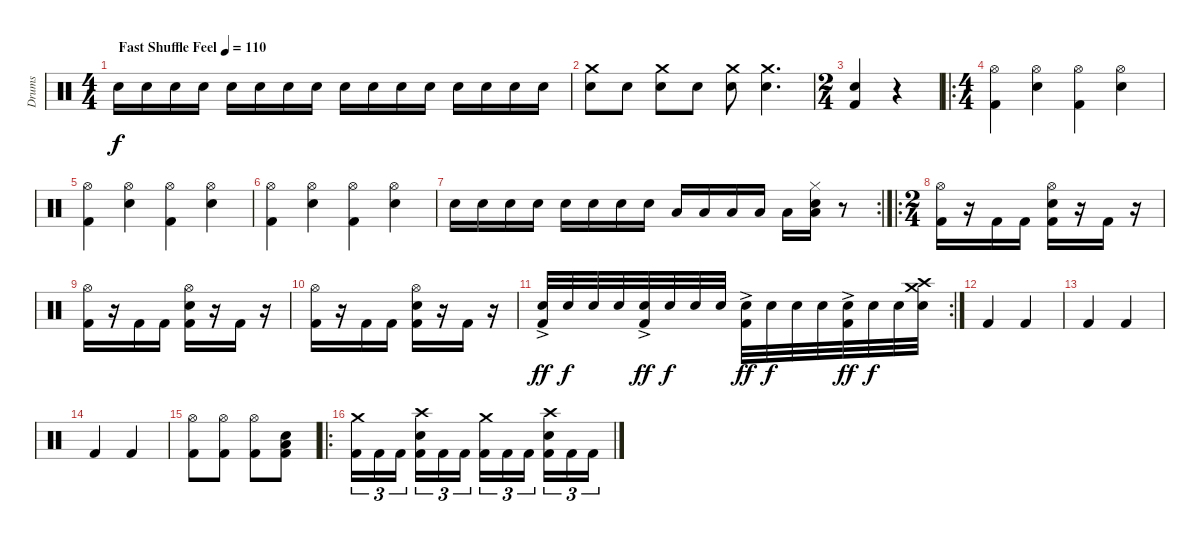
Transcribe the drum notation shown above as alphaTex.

\track ("Drums" "Drums") {instrument percussion}
\staff {score}
\articulation defaults
\ts (4 4)
\tempo (110 "Fast Shuffle Feel")
\clef neutral
\ks c "Snare (hit) 2".16{dy f} "Snare (hit) 2".16 "Snare (hit) 2".16 "Snare (hit) 2".16 "Snare (hit) 2".16 "Snare (hit) 2".16 "Snare (hit) 2".16 "Snare (hit) 2".16 "Snare (hit) 2".16 "Snare (hit) 2".16 "Snare (hit) 2".16 "Snare (hit) 2".16 "Snare (hit) 2".16 "Snare (hit) 2".16 "Snare (hit) 2".16 "Snare (hit) 2".16
|
("Snare (hit) 2" "Crash medium (hit)").8 "Snare (hit) 2".8 ("Snare (hit) 2" "Crash medium (hit)").8 "Snare (hit) 2".8 ("Snare (hit) 2" "Crash medium (hit)").8 ("Snare (hit) 2" "Crash medium (hit)").4{d} |
\ts (2 4)
("Kick (hit) 2" "Snare (hit) 2").4 r.4 |
\ro
\ts (4 4)
("Hi-Hat (open)" "Kick (hit) 2").4 ("Hi-Hat (open)" "Snare (hit) 2").4 ("Hi-Hat (open)" "Kick (hit) 2").4 ("Hi-Hat (open)" "Snare (hit) 2").4 |
("Hi-Hat (open)" "Kick (hit) 2").4 ("Hi-Hat (open)" "Snare (hit) 2").4 ("Hi-Hat (open)" "Kick (hit) 2").4 ("Hi-Hat (open)" "Snare (hit) 2").4 |
("Hi-Hat (open)" "Kick (hit) 2").4 ("Hi-Hat (open)" "Snare (hit) 2").4 ("Hi-Hat (open)" "Kick (hit) 2").4 ("Hi-Hat (open)" "Snare (hit) 2").4 |
\rc 2 "Snare (hit) 2".16 "Snare (hit) 2".16 "Snare (hit) 2".16 "Snare (hit) 2".16 "Snare (hit) 2".16 "Snare (hit) 2".16 "Snare (hit) 2".16 "Snare (hit) 2".16 "Low Tom (hit)".16 "Low Tom (hit)".16 "Low Tom (hit)".16 "Low Floor Tom (hit)".16 "Low Floor Tom (hit)".16
("Low Floor Tom (hit)" "Snare (hit) 2" "Hi-Hat (closed)").16 r.8 |
\ro
\ts (2 4)
("Kick (hit) 2" "Hi-Hat (open)").16 r.16 "Kick (hit) 2".16 "Kick (hit) 2".16 ("Kick (hit) 2" "Snare (hit) 2" "Hi-Hat (open)").16 r.16 "Kick (hit) 2".16 r.16 |
("Kick (hit) 2" "Hi-Hat (open)").16 r.16 "Kick (hit) 2".16 "Kick (hit) 2".16 ("Kick (hit) 2" "Snare (hit) 2" "Hi-Hat (open)").16 r.16 "Kick (hit) 2".16 r.16 |
("Kick (hit) 2" "Hi-Hat (open)").16 r.16 "Kick (hit) 2".16 "Kick (hit) 2".16 ("Kick (hit) 2" "Snare (hit) 2" "Hi-Hat (open)").16 r.16 "Kick (hit) 2".16 r.16 |
\rc 2
("Snare (hit) 2" "Kick (hit) 2"{ac}).32{dy ff} "Snare (hit) 2".32{dy f} "Snare (hit) 2".32 "Snare (hit) 2".32 ("Snare (hit) 2" "Kick (hit) 2"{ac}).32{dy ff} "Snare (hit) 2".32{dy f} "Snare (hit) 2".32 "Snare (hit) 2".32 ("Snare (hit) 2" "Kick (hit) 2"{ac}).32{dy ff} "Snare (hit) 2".32{dy f} "Snare (hit) 2".32 "Snare (hit) 2".32 ("Snare (hit) 2" "Kick (hit) 2"{ac}).32{dy ff} "Snare (hit) 2".32{dy f} "Snare (hit) 2".32 ("Snare (hit) 2" "Crash high (hit)" "Crash medium (hit)").32 |
"Kick (hit) 2".4 "Kick (hit) 2".4 |
"Kick (hit) 2".4 "Kick (hit) 2".4 |
"Kick (hit) 2".4 "Kick (hit) 2".4 |
("Kick (hit) 2" "Hi-Hat (open)").8 ("Kick (hit) 2" "Hi-Hat (open)").8 ("Kick (hit) 2" "Hi-Hat (open)").8 ("Low Floor Tom (hit)" "Kick (hit) 2" "Snare (hit) 2").8 |
\ro
("Kick (hit) 2" "Crash medium (hit)").16{tu (3 2)} "Kick (hit) 2".16{tu (3 2)} "Kick (hit) 2".16{tu (3 2) beam splitsecondary} ("Kick (hit) 2" "Crash high (hit)" "Snare (hit) 2").16{tu (3 2)} "Kick (hit) 2".16{tu (3 2)} "Kick (hit) 2".16{tu (3 2)} ("Kick (hit) 2" "Crash medium (hit)").16{tu (3 2)} "Kick (hit) 2".16{tu (3 2)} "Kick (hit) 2".16{tu (3 2) beam splitsecondary} ("Kick (hit) 2" "Crash high (hit)" "Snare (hit) 2").16{tu (3 2)} "Kick (hit) 2".16{tu (3 2)} "Kick (hit) 2".16{tu (3 2)}
